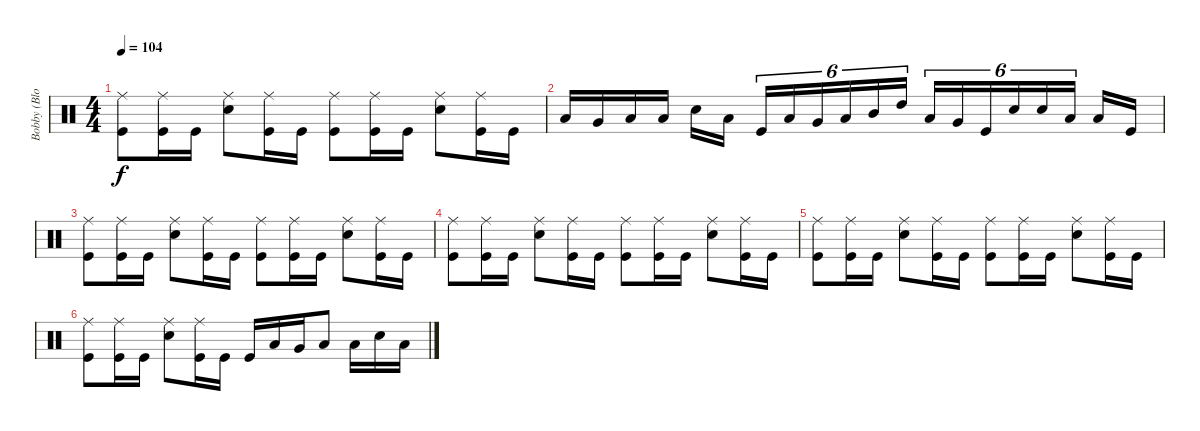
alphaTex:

\track ("Bobby (Blotz) Blotzer - Drums" "Bobby (Blo") {instrument percussion}
\staff {score}
\articulation defaults
\ts (4 4)
\tempo 104
\clef neutral
\ks c
("Ride (middle)" "Kick (hit)").8{dy f} ("Ride (middle)" "Kick (hit)").16 "Kick (hit)".16 ("Ride (middle)" "Snare (hit) 2").8 ("Ride (middle)" "Kick (hit)").16 "Kick (hit)".16 ("Ride (middle)" "Kick (hit)").8 ("Ride (middle)" "Kick (hit)").16 "Kick (hit)".16 ("Ride (middle)" "Snare (hit) 2").8 ("Ride (middle)" "Kick (hit)").16 "Kick (hit)".16 |
"Low Tom (hit)".16 "Very Low Tom (hit)".16 "Low Tom (hit)".16 "Low Floor Tom (hit)".16 "Snare (hit) 2".16 "Low Tom (hit)".16 "Kick (hit)".16{tu (6 4)} "Low Tom (hit)".16{tu (6 4)} "Very Low Tom (hit)".16{tu (6 4)} "Low Tom (hit)".16{tu (6 4)} "Mid Tom (hit)".16{tu (6 4)} "High Tom (hit)".16{tu (6 4)} "Low Tom (hit)".16{tu (6 4)} "Very Low Tom (hit)".16{tu (6 4)} "Kick (hit)".16{tu (6 4)} "Snare (hit) 2".16{tu (6 4)} "Snare (hit) 2".16{tu (6 4)} "Low Tom (hit)".16{tu (6 4)} "Low Tom (hit)".16 "Kick (hit)".16 |
("Ride (middle)" "Kick (hit)").8 ("Ride (middle)" "Kick (hit)").16 "Kick (hit)".16 ("Ride (middle)" "Snare (hit) 2").8 ("Ride (middle)" "Kick (hit)").16 "Kick (hit)".16 ("Ride (middle)" "Kick (hit)").8 ("Ride (middle)" "Kick (hit)").16 "Kick (hit)".16 ("Ride (middle)" "Snare (hit) 2").8 ("Ride (middle)" "Kick (hit)").16 "Kick (hit)".16 |
("Ride (middle)" "Kick (hit)").8 ("Ride (middle)" "Kick (hit)").16 "Kick (hit)".16 ("Ride (middle)" "Snare (hit) 2").8 ("Ride (middle)" "Kick (hit)").16 "Kick (hit)".16 ("Ride (middle)" "Kick (hit)").8 ("Ride (middle)" "Kick (hit)").16 "Kick (hit)".16 ("Ride (middle)" "Snare (hit) 2").8 ("Ride (middle)" "Kick (hit)").16 "Kick (hit)".16 |
("Ride (middle)" "Kick (hit)").8 ("Ride (middle)" "Kick (hit)").16 "Kick (hit)".16 ("Ride (middle)" "Snare (hit) 2").8 ("Ride (middle)" "Kick (hit)").16 "Kick (hit)".16 ("Ride (middle)" "Kick (hit)").8 ("Ride (middle)" "Kick (hit)").16 "Kick (hit)".16 ("Ride (middle)" "Snare (hit) 2").8 ("Ride (middle)" "Kick (hit)").16 "Kick (hit)".16 |
("Ride (middle)" "Kick (hit)").8 ("Ride (middle)" "Kick (hit)").16 "Kick (hit)".16 ("Ride (middle)" "Snare (hit) 2").8 ("Ride (middle)" "Kick (hit)").16 "Kick (hit)".16 "Kick (hit)".16 "Low Tom (hit)".16 "Very Low Tom (hit)".16 "Low Tom (hit)".8 "Low Floor Tom (hit)".16 "Snare (hit) 2".16 "Low Tom (hit)".16
